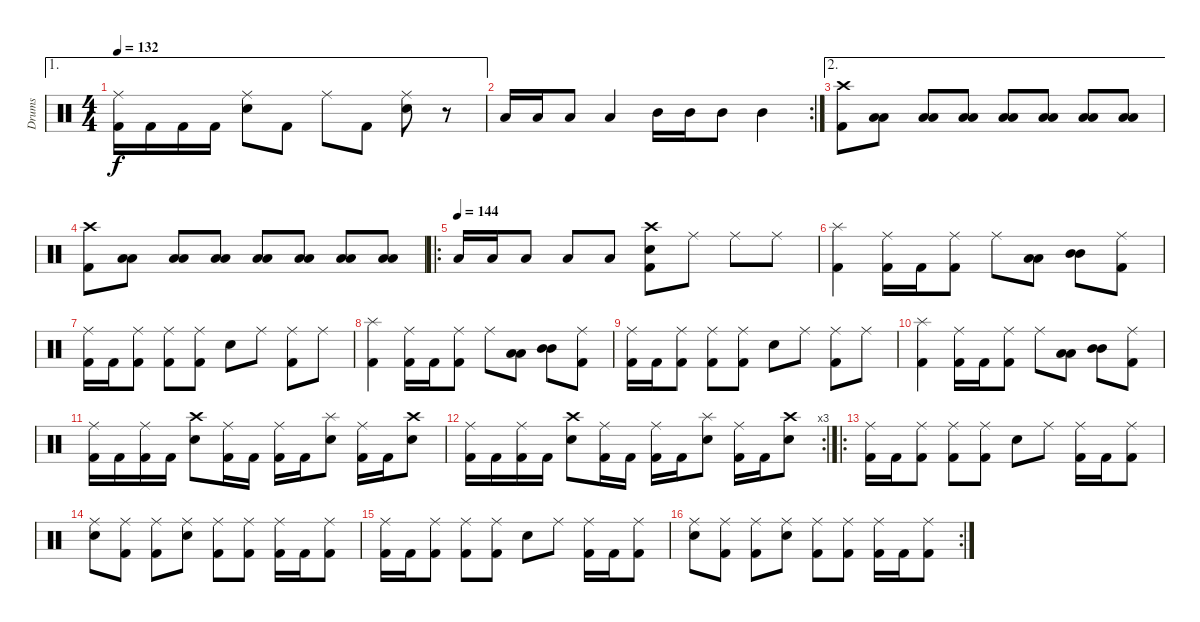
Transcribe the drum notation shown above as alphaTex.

\track ("Drums" "Drums") {instrument percussion}
\staff {score}
\articulation defaults
\ae 1
\ts (4 4)
\tempo 132
\clef neutral
\ks c
("Kick (hit) 2" "Ride (middle)").16{dy f} "Kick (hit) 2".16 "Kick (hit) 2".16 "Kick (hit) 2".16 ("Snare (hit) 2" "Ride (middle)").8 "Kick (hit) 2".8 "Ride (middle)".8 "Kick (hit) 2".8 ("Snare (hit) 2" "Ride (middle)").8 r.8 |
\rc 2 "Low Tom (hit)".16 "Low Tom (hit)".16 "Low Tom (hit)".8 "Low Tom (hit)".4 "Mid Tom (hit)".16 "Mid Tom (hit)".16 "Mid Tom (hit)".8 "Mid Tom (hit)".4
|
\ae 2
("Kick (hit) 2" "Crash high (hit)").8 ("Low Floor Tom (hit)" "Low Floor Tom (hit)").8 ("Low Floor Tom (hit)" "Low Floor Tom (hit)").8 ("Low Floor Tom (hit)" "Low Floor Tom (hit)").8 ("Low Floor Tom (hit)" "Low Floor Tom (hit)").8 ("Low Floor Tom (hit)" "Low Floor Tom (hit)").8 ("Low Floor Tom (hit)" "Low Floor Tom (hit)").8 ("Low Floor Tom (hit)" "Low Floor Tom (hit)").8 |
("Kick (hit) 2" "Crash high (hit)").8 ("Low Floor Tom (hit)" "Low Floor Tom (hit)").8 ("Low Floor Tom (hit)" "Low Floor Tom (hit)").8 ("Low Floor Tom (hit)" "Low Floor Tom (hit)").8 ("Low Floor Tom (hit)" "Low Floor Tom (hit)").8 ("Low Floor Tom (hit)" "Low Floor Tom (hit)").8 ("Low Floor Tom (hit)" "Low Floor Tom (hit)").8 ("Low Floor Tom (hit)" "Low Floor Tom (hit)").8 |
\ro
\tempo (144)
"Low Floor Tom (hit)".16 "Low Floor Tom (hit)".16 "Low Floor Tom (hit)".8 "Low Floor Tom (hit)".8 "Low Floor Tom (hit)".8 ("Kick (hit) 2" "Snare (hit) 2" "Crash high (hit)").8 "Ride (middle)".8 "Ride (middle)".8 "Ride (middle)".8 |
("Kick (hit) 2" "Splash (hit)").4 ("Kick (hit) 2" "Ride (middle)").16 "Kick (hit) 2".16 ("Kick (hit) 2" "Ride (middle)").8 "Ride (middle)".8 ("Low Tom (hit)" "Low Tom (hit)").8 ("Mid Tom (hit)" "Mid Tom (hit)").8 ("Kick (hit) 2" "Ride (middle)").8 |
("Kick (hit) 2" "Ride (middle)").16 "Kick (hit) 2".16 ("Kick (hit) 2" "Ride (middle)").8 ("Kick (hit) 2" "Ride (middle)").8 ("Kick (hit) 2" "Ride (middle)").8 "Snare (hit) 2".8 "Ride (middle)".8 ("Kick (hit) 2" "Ride (middle)").8 "Ride (middle)".8 |
("Kick (hit) 2" "Splash (hit)").4 ("Kick (hit) 2" "Ride (middle)").16 "Kick (hit) 2".16 ("Kick (hit) 2" "Ride (middle)").8 "Ride (middle)".8 ("Low Tom (hit)" "Low Tom (hit)").8 ("Mid Tom (hit)" "Mid Tom (hit)").8 ("Kick (hit) 2" "Ride (middle)").8 |
("Kick (hit) 2" "Ride (middle)").16 "Kick (hit) 2".16 ("Kick (hit) 2" "Ride (middle)").8 ("Kick (hit) 2" "Ride (middle)").8 ("Kick (hit) 2" "Ride (middle)").8 "Snare (hit) 2".8 "Ride (middle)".8 ("Kick (hit) 2" "Ride (middle)").8 "Ride (middle)".8 |
("Kick (hit) 2" "Splash (hit)").4 ("Kick (hit) 2" "Ride (middle)").16 "Kick (hit) 2".16 ("Kick (hit) 2" "Ride (middle)").8 "Ride (middle)".8 ("Low Tom (hit)" "Low Tom (hit)").8 ("Mid Tom (hit)" "Mid Tom (hit)").8 ("Kick (hit) 2" "Ride (middle)").8 |
("Kick (hit) 2" "Ride (middle)").16 "Kick (hit) 2".16 ("Kick (hit) 2" "Ride (middle)").16 "Kick (hit) 2".16 ("Snare (hit) 2" "Crash high (hit)").8 ("Kick (hit) 2" "Ride (middle)").16 "Kick (hit) 2".16 ("Kick (hit) 2" "Ride (middle)").16 "Kick (hit) 2".16 ("Snare (hit) 2" "Splash (hit)").8 ("Kick (hit) 2" "Ride (middle)").16 "Kick (hit) 2".16 ("Snare (hit) 2" "Crash high (hit)").8 |
\rc 3
("Kick (hit) 2" "Ride (middle)").16 "Kick (hit) 2".16 ("Kick (hit) 2" "Ride (middle)").16 "Kick (hit) 2".16 ("Snare (hit) 2" "Crash high (hit)").8 ("Kick (hit) 2" "Ride (middle)").16 "Kick (hit) 2".16 ("Kick (hit) 2" "Ride (middle)").16 "Kick (hit) 2".16 ("Snare (hit) 2" "Splash (hit)").8 ("Kick (hit) 2" "Ride (middle)").16 "Kick (hit) 2".16 ("Snare (hit) 2" "Crash high (hit)").8 |
\ro
("Kick (hit) 2" "Ride (middle)").16 "Kick (hit) 2".16 ("Kick (hit) 2" "Ride (middle)").8 ("Kick (hit) 2" "Ride (middle)").8 ("Kick (hit) 2" "Ride (middle)").8 "Snare (hit) 2".8 "Ride (middle)".8 ("Kick (hit) 2" "Ride (middle)").16 "Kick (hit) 2".16 ("Kick (hit) 2" "Ride (middle)").8 |
("Snare (hit) 2" "Ride (middle)").8 ("Kick (hit) 2" "Ride (middle)").8 ("Kick (hit) 2" "Ride (middle)").8 ("Snare (hit) 2" "Ride (middle)").8 ("Kick (hit) 2" "Ride (middle)").8 ("Kick (hit) 2" "Ride (middle)").8 ("Kick (hit) 2" "Ride (middle)").16 "Kick (hit) 2".16 ("Kick (hit) 2" "Ride (middle)").8 |
("Kick (hit) 2" "Ride (middle)").16 "Kick (hit) 2".16 ("Kick (hit) 2" "Ride (middle)").8 ("Kick (hit) 2" "Ride (middle)").8 ("Kick (hit) 2" "Ride (middle)").8 "Snare (hit) 2".8 "Ride (middle)".8 ("Kick (hit) 2" "Ride (middle)").16 "Kick (hit) 2".16 ("Kick (hit) 2" "Ride (middle)").8 |
\rc 2
("Snare (hit) 2" "Ride (middle)").8 ("Kick (hit) 2" "Ride (middle)").8 ("Kick (hit) 2" "Ride (middle)").8 ("Snare (hit) 2" "Ride (middle)").8 ("Kick (hit) 2" "Ride (middle)").8 ("Kick (hit) 2" "Ride (middle)").8 ("Kick (hit) 2" "Ride (middle)").16 "Kick (hit) 2".16 ("Kick (hit) 2" "Ride (middle)").8
